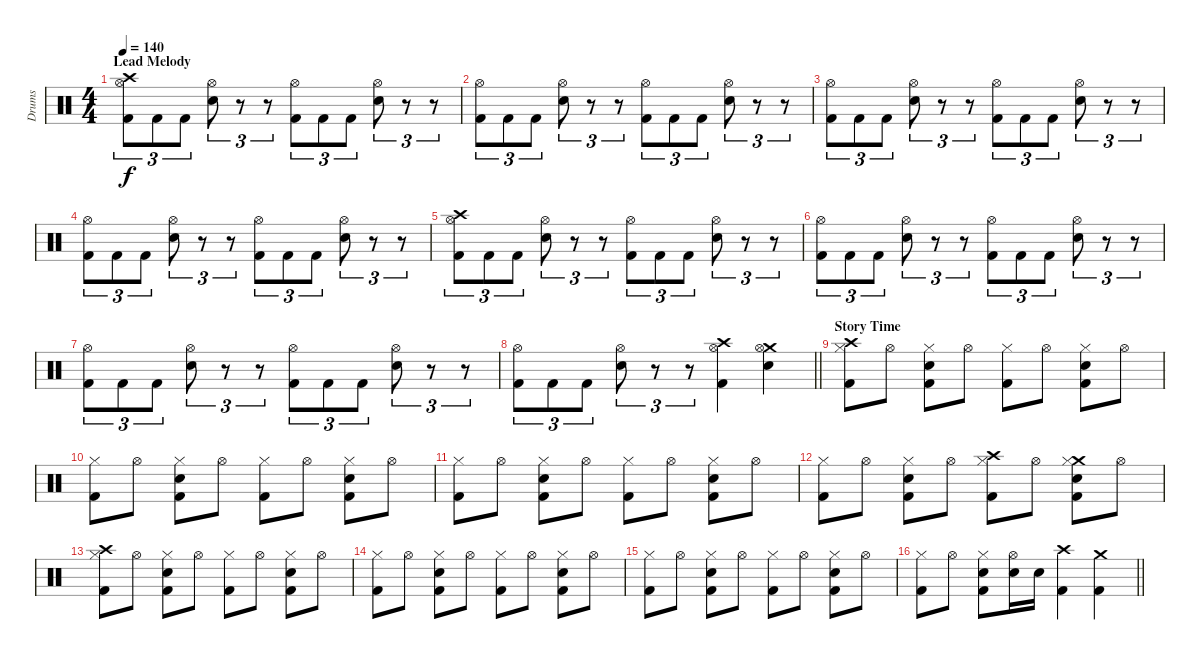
\track ("Drums" "Drums") {instrument percussion}
\staff {score}
\articulation defaults
\ts (4 4)
\section ("" "Lead Melody")
\tempo 140
\clef neutral
\ks c
("Crash high (hit)" "Hi-Hat (open)" "Kick (hit) 2").8{tu (3 2) dy f} "Kick (hit) 2".8{tu (3 2)} "Kick (hit) 2".8{tu (3 2)} ("Hi-Hat (open)" "Snare (hit) 2").8{tu (3 2)} r.8{tu (3 2)} r.8{tu (3 2)} ("Hi-Hat (open)" "Kick (hit) 2").8{tu (3 2)} "Kick (hit) 2".8{tu (3 2)} "Kick (hit) 2".8{tu (3 2)} ("Hi-Hat (open)" "Snare (hit) 2").8{tu (3 2)} r.8{tu (3 2)} r.8{tu (3 2)} |
("Hi-Hat (open)" "Kick (hit) 2").8{tu (3 2)} "Kick (hit) 2".8{tu (3 2)} "Kick (hit) 2".8{tu (3 2)} ("Hi-Hat (open)" "Snare (hit) 2").8{tu (3 2)} r.8{tu (3 2)} r.8{tu (3 2)} ("Hi-Hat (open)" "Kick (hit) 2").8{tu (3 2)} "Kick (hit) 2".8{tu (3 2)} "Kick (hit) 2".8{tu (3 2)} ("Hi-Hat (open)" "Snare (hit) 2").8{tu (3 2)} r.8{tu (3 2)} r.8{tu (3 2)} |
("Hi-Hat (open)" "Kick (hit) 2").8{tu (3 2)} "Kick (hit) 2".8{tu (3 2)} "Kick (hit) 2".8{tu (3 2)} ("Hi-Hat (open)" "Snare (hit) 2").8{tu (3 2)} r.8{tu (3 2)} r.8{tu (3 2)} ("Hi-Hat (open)" "Kick (hit) 2").8{tu (3 2)} "Kick (hit) 2".8{tu (3 2)} "Kick (hit) 2".8{tu (3 2)} ("Hi-Hat (open)" "Snare (hit) 2").8{tu (3 2)} r.8{tu (3 2)} r.8{tu (3 2)} |
("Hi-Hat (open)" "Kick (hit) 2").8{tu (3 2)} "Kick (hit) 2".8{tu (3 2)} "Kick (hit) 2".8{tu (3 2)} ("Hi-Hat (open)" "Snare (hit) 2").8{tu (3 2)} r.8{tu (3 2)} r.8{tu (3 2)} ("Hi-Hat (open)" "Kick (hit) 2").8{tu (3 2)} "Kick (hit) 2".8{tu (3 2)} "Kick (hit) 2".8{tu (3 2)} ("Hi-Hat (open)" "Snare (hit) 2").8{tu (3 2)} r.8{tu (3 2)} r.8{tu (3 2)} |
("Crash high (hit)" "Hi-Hat (open)" "Kick (hit) 2").8{tu (3 2)} "Kick (hit) 2".8{tu (3 2)} "Kick (hit) 2".8{tu (3 2)} ("Hi-Hat (open)" "Snare (hit) 2").8{tu (3 2)} r.8{tu (3 2)} r.8{tu (3 2)} ("Hi-Hat (open)" "Kick (hit) 2").8{tu (3 2)} "Kick (hit) 2".8{tu (3 2)} "Kick (hit) 2".8{tu (3 2)} ("Hi-Hat (open)" "Snare (hit) 2").8{tu (3 2)} r.8{tu (3 2)} r.8{tu (3 2)} |
("Hi-Hat (open)" "Kick (hit) 2").8{tu (3 2)} "Kick (hit) 2".8{tu (3 2)} "Kick (hit) 2".8{tu (3 2)} ("Hi-Hat (open)" "Snare (hit) 2").8{tu (3 2)} r.8{tu (3 2)} r.8{tu (3 2)} ("Hi-Hat (open)" "Kick (hit) 2").8{tu (3 2)} "Kick (hit) 2".8{tu (3 2)} "Kick (hit) 2".8{tu (3 2)} ("Hi-Hat (open)" "Snare (hit) 2").8{tu (3 2)} r.8{tu (3 2)} r.8{tu (3 2)} |
("Hi-Hat (open)" "Kick (hit) 2").8{tu (3 2)} "Kick (hit) 2".8{tu (3 2)} "Kick (hit) 2".8{tu (3 2)} ("Hi-Hat (open)" "Snare (hit) 2").8{tu (3 2)} r.8{tu (3 2)} r.8{tu (3 2)} ("Hi-Hat (open)" "Kick (hit) 2").8{tu (3 2)} "Kick (hit) 2".8{tu (3 2)} "Kick (hit) 2".8{tu (3 2)} ("Hi-Hat (open)" "Snare (hit) 2").8{tu (3 2)} r.8{tu (3 2)} r.8{tu (3 2)} |
\barLineRight lightlight
("Hi-Hat (open)" "Kick (hit) 2").8{tu (3 2)} "Kick (hit) 2".8{tu (3 2)} "Kick (hit) 2".8{tu (3 2)} ("Hi-Hat (open)" "Snare (hit) 2").8{tu (3 2)} r.8{tu (3 2)} r.8{tu (3 2)} ("Crash high (hit)" "Hi-Hat (open)" "Kick (hit) 2").4 ("Crash medium (hit)" "Hi-Hat (open)" "Snare (hit) 2").4 |
\section ("" "Story Time")
("Crash high (hit)" "Hi-Hat (closed)" "Kick (hit) 2").8 "Hi-Hat (open)".8 ("Hi-Hat (closed)" "Snare (hit) 2" "Kick (hit) 2").8 "Hi-Hat (open)".8 ("Hi-Hat (closed)" "Kick (hit) 2").8 "Hi-Hat (open)".8 ("Hi-Hat (closed)" "Snare (hit) 2" "Kick (hit) 2").8 "Hi-Hat (open)".8 |
("Hi-Hat (closed)" "Kick (hit) 2").8 "Hi-Hat (open)".8 ("Hi-Hat (closed)" "Snare (hit) 2" "Kick (hit) 2").8 "Hi-Hat (open)".8 ("Hi-Hat (closed)" "Kick (hit) 2").8 "Hi-Hat (open)".8 ("Hi-Hat (closed)" "Snare (hit) 2" "Kick (hit) 2").8 "Hi-Hat (open)".8 |
("Hi-Hat (closed)" "Kick (hit) 2").8 "Hi-Hat (open)".8 ("Hi-Hat (closed)" "Snare (hit) 2" "Kick (hit) 2").8 "Hi-Hat (open)".8 ("Hi-Hat (closed)" "Kick (hit) 2").8 "Hi-Hat (open)".8 ("Hi-Hat (closed)" "Snare (hit) 2" "Kick (hit) 2").8 "Hi-Hat (open)".8 |
("Hi-Hat (closed)" "Kick (hit) 2").8 "Hi-Hat (open)".8 ("Hi-Hat (closed)" "Snare (hit) 2" "Kick (hit) 2").8 "Hi-Hat (open)".8 ("Crash high (hit)" "Hi-Hat (closed)" "Kick (hit) 2").8 "Hi-Hat (open)".8 ("Crash medium (hit)" "Hi-Hat (closed)" "Snare (hit) 2" "Kick (hit) 2").8 "Hi-Hat (open)".8 |
("Crash high (hit)" "Hi-Hat (closed)" "Kick (hit) 2").8 "Hi-Hat (open)".8 ("Hi-Hat (closed)" "Snare (hit) 2" "Kick (hit) 2").8 "Hi-Hat (open)".8 ("Hi-Hat (closed)" "Kick (hit) 2").8 "Hi-Hat (open)".8 ("Hi-Hat (closed)" "Snare (hit) 2" "Kick (hit) 2").8 "Hi-Hat (open)".8 |
("Hi-Hat (closed)" "Kick (hit) 2").8 "Hi-Hat (open)".8 ("Hi-Hat (closed)" "Snare (hit) 2" "Kick (hit) 2").8 "Hi-Hat (open)".8 ("Hi-Hat (closed)" "Kick (hit) 2").8 "Hi-Hat (open)".8 ("Hi-Hat (closed)" "Snare (hit) 2" "Kick (hit) 2").8 "Hi-Hat (open)".8 |
("Hi-Hat (closed)" "Kick (hit) 2").8 "Hi-Hat (open)".8 ("Hi-Hat (closed)" "Snare (hit) 2" "Kick (hit) 2").8 "Hi-Hat (open)".8 ("Hi-Hat (closed)" "Kick (hit) 2").8 "Hi-Hat (open)".8 ("Hi-Hat (closed)" "Snare (hit) 2" "Kick (hit) 2").8 "Hi-Hat (open)".8 |
\barLineRight lightlight
("Hi-Hat (closed)" "Kick (hit) 2").8 "Hi-Hat (open)".8 ("Hi-Hat (closed)" "Snare (hit) 2" "Kick (hit) 2").8 ("Hi-Hat (open)" "Snare (hit) 2").16 "Snare (hit) 2".16 ("Crash high (hit)" "Kick (hit) 2").4 ("Crash medium (hit)" "Kick (hit) 2").4
